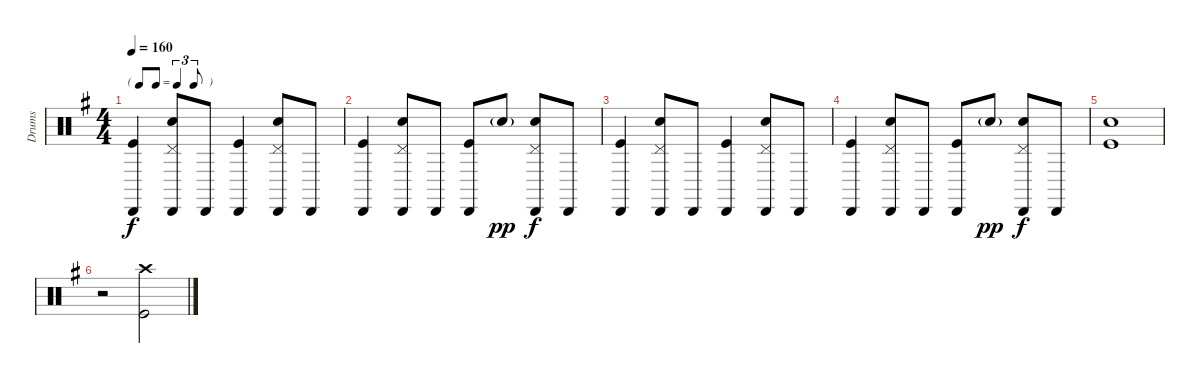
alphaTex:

\track ("Drums" "Drums") {instrument percussion}
\staff {score}
\articulation defaults
\ts (4 4)
\tf triplet8th
\tempo 160
\clef neutral
\ks g
("Cabasa (hit)" "Kick (hit)").4{dy f} ("Pedal Hi-Hat (hit)" "Cabasa (hit)" "Snare (hit) 2").8 "Cabasa (hit)".8 ("Cabasa (hit)" "Kick (hit)").4 ("Pedal Hi-Hat (hit)" "Cabasa (hit)" "Snare (hit) 2").8 "Cabasa (hit)".8 |
("Cabasa (hit)" "Kick (hit)").4 ("Pedal Hi-Hat (hit)" "Cabasa (hit)" "Snare (hit) 2").8 "Cabasa (hit)".8 ("Cabasa (hit)" "Kick (hit)").8 "Snare (hit) 2"{g}.8{dy pp} ("Pedal Hi-Hat (hit)" "Cabasa (hit)" "Snare (hit) 2").8{dy f} "Cabasa (hit)".8 |
("Cabasa (hit)" "Kick (hit)").4 ("Pedal Hi-Hat (hit)" "Cabasa (hit)" "Snare (hit) 2").8 "Cabasa (hit)".8 ("Cabasa (hit)" "Kick (hit)").4 ("Pedal Hi-Hat (hit)" "Cabasa (hit)" "Snare (hit) 2").8 "Cabasa (hit)".8 |
("Cabasa (hit)" "Kick (hit)").4 ("Pedal Hi-Hat (hit)" "Cabasa (hit)" "Snare (hit) 2").8 "Cabasa (hit)".8 ("Cabasa (hit)" "Kick (hit)").8 "Snare (hit) 2"{g}.8{dy pp} ("Pedal Hi-Hat (hit)" "Cabasa (hit)" "Snare (hit) 2").8{dy f} "Cabasa (hit)".8 |
("Snare (hit) 2" "Kick (hit)").1 |
r.2 ("Crash high (hit)" "Kick (hit)").2
